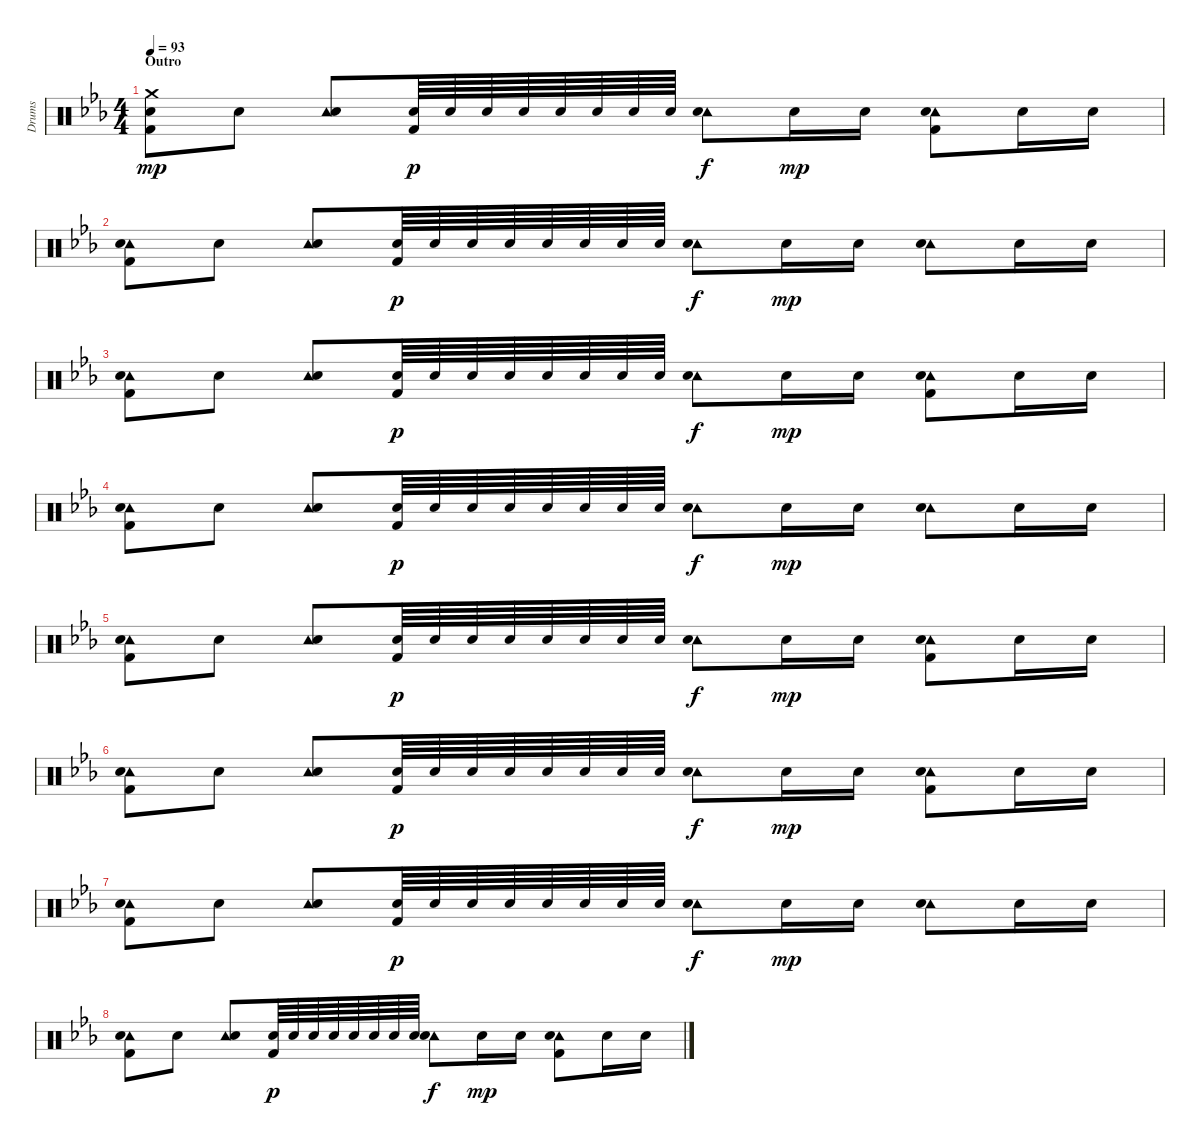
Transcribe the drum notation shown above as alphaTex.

\track ("Drums" "Drums") {instrument percussion}
\staff {score}
\articulation defaults
\ts (4 4)
\section ("" "Outro")
\tempo 93
\clef neutral
\ks eb
("Crash medium (hit)" "Electric Snare (hit)" "Kick (hit) 2").8{dy mp} "Electric Snare (hit)".8 ("Tambourine (hit)" "Electric Snare (hit)").8 ("Electric Snare (hit)" "Kick (hit) 2").64{dy p} "Electric Snare (hit)".64 "Electric Snare (hit)".64 "Electric Snare (hit)".64 "Electric Snare (hit)".64 "Electric Snare (hit)".64 "Electric Snare (hit)".64 "Electric Snare (hit)".64 ("Tambourine (hit)" "Snare (hit) 2").8{dy f} "Electric Snare (hit)".16{dy mp} "Electric Snare (hit)".16 ("Tambourine (hit)" "Electric Snare (hit)" "Kick (hit) 2").8 "Electric Snare (hit)".16 "Electric Snare (hit)".16 |
("Tambourine (hit)" "Electric Snare (hit)" "Kick (hit) 2").8 "Electric Snare (hit)".8 ("Tambourine (hit)" "Electric Snare (hit)").8 ("Electric Snare (hit)" "Kick (hit) 2").64{dy p} "Electric Snare (hit)".64 "Electric Snare (hit)".64 "Electric Snare (hit)".64 "Electric Snare (hit)".64 "Electric Snare (hit)".64 "Electric Snare (hit)".64 "Electric Snare (hit)".64 ("Tambourine (hit)" "Snare (hit) 2").8{dy f} "Electric Snare (hit)".16{dy mp} "Electric Snare (hit)".16 ("Tambourine (hit)" "Electric Snare (hit)").8 "Electric Snare (hit)".16 "Electric Snare (hit)".16 |
("Tambourine (hit)" "Electric Snare (hit)" "Kick (hit) 2").8 "Electric Snare (hit)".8 ("Tambourine (hit)" "Electric Snare (hit)").8 ("Electric Snare (hit)" "Kick (hit) 2").64{dy p} "Electric Snare (hit)".64 "Electric Snare (hit)".64 "Electric Snare (hit)".64 "Electric Snare (hit)".64 "Electric Snare (hit)".64 "Electric Snare (hit)".64 "Electric Snare (hit)".64 ("Tambourine (hit)" "Snare (hit) 2").8{dy f} "Electric Snare (hit)".16{dy mp} "Electric Snare (hit)".16 ("Tambourine (hit)" "Electric Snare (hit)" "Kick (hit) 2").8 "Electric Snare (hit)".16 "Electric Snare (hit)".16 |
("Tambourine (hit)" "Electric Snare (hit)" "Kick (hit) 2").8 "Electric Snare (hit)".8 ("Tambourine (hit)" "Electric Snare (hit)").8 ("Electric Snare (hit)" "Kick (hit) 2").64{dy p} "Electric Snare (hit)".64 "Electric Snare (hit)".64 "Electric Snare (hit)".64 "Electric Snare (hit)".64 "Electric Snare (hit)".64 "Electric Snare (hit)".64 "Electric Snare (hit)".64 ("Tambourine (hit)" "Snare (hit) 2").8{dy f} "Electric Snare (hit)".16{dy mp} "Electric Snare (hit)".16 ("Tambourine (hit)" "Electric Snare (hit)").8 "Electric Snare (hit)".16 "Electric Snare (hit)".16 |
("Tambourine (hit)" "Electric Snare (hit)" "Kick (hit) 2").8 "Electric Snare (hit)".8 ("Tambourine (hit)" "Electric Snare (hit)").8 ("Electric Snare (hit)" "Kick (hit) 2").64{dy p} "Electric Snare (hit)".64 "Electric Snare (hit)".64 "Electric Snare (hit)".64 "Electric Snare (hit)".64 "Electric Snare (hit)".64 "Electric Snare (hit)".64 "Electric Snare (hit)".64 ("Tambourine (hit)" "Snare (hit) 2").8{dy f} "Electric Snare (hit)".16{dy mp} "Electric Snare (hit)".16 ("Tambourine (hit)" "Electric Snare (hit)" "Kick (hit) 2").8 "Electric Snare (hit)".16 "Electric Snare (hit)".16 |
("Tambourine (hit)" "Electric Snare (hit)" "Kick (hit) 2").8 "Electric Snare (hit)".8 ("Tambourine (hit)" "Electric Snare (hit)").8 ("Electric Snare (hit)" "Kick (hit) 2").64{dy p} "Electric Snare (hit)".64 "Electric Snare (hit)".64 "Electric Snare (hit)".64 "Electric Snare (hit)".64 "Electric Snare (hit)".64 "Electric Snare (hit)".64 "Electric Snare (hit)".64 ("Tambourine (hit)" "Snare (hit) 2").8{dy f} "Electric Snare (hit)".16{dy mp} "Electric Snare (hit)".16 ("Tambourine (hit)" "Electric Snare (hit)" "Kick (hit) 2").8 "Electric Snare (hit)".16 "Electric Snare (hit)".16 |
("Tambourine (hit)" "Electric Snare (hit)" "Kick (hit) 2").8 "Electric Snare (hit)".8 ("Tambourine (hit)" "Electric Snare (hit)").8 ("Electric Snare (hit)" "Kick (hit) 2").64{dy p} "Electric Snare (hit)".64 "Electric Snare (hit)".64 "Electric Snare (hit)".64 "Electric Snare (hit)".64 "Electric Snare (hit)".64 "Electric Snare (hit)".64 "Electric Snare (hit)".64 ("Tambourine (hit)" "Snare (hit) 2").8{dy f} "Electric Snare (hit)".16{dy mp} "Electric Snare (hit)".16 ("Tambourine (hit)" "Electric Snare (hit)").8 "Electric Snare (hit)".16 "Electric Snare (hit)".16 |
("Tambourine (hit)" "Electric Snare (hit)" "Kick (hit) 2").8 "Electric Snare (hit)".8 ("Tambourine (hit)" "Electric Snare (hit)").8 ("Electric Snare (hit)" "Kick (hit) 2").64{dy p} "Electric Snare (hit)".64 "Electric Snare (hit)".64 "Electric Snare (hit)".64 "Electric Snare (hit)".64 "Electric Snare (hit)".64 "Electric Snare (hit)".64 "Electric Snare (hit)".64 ("Tambourine (hit)" "Snare (hit) 2").8{dy f} "Electric Snare (hit)".16{dy mp} "Electric Snare (hit)".16 ("Tambourine (hit)" "Electric Snare (hit)" "Kick (hit) 2").8 "Electric Snare (hit)".16 "Electric Snare (hit)".16
